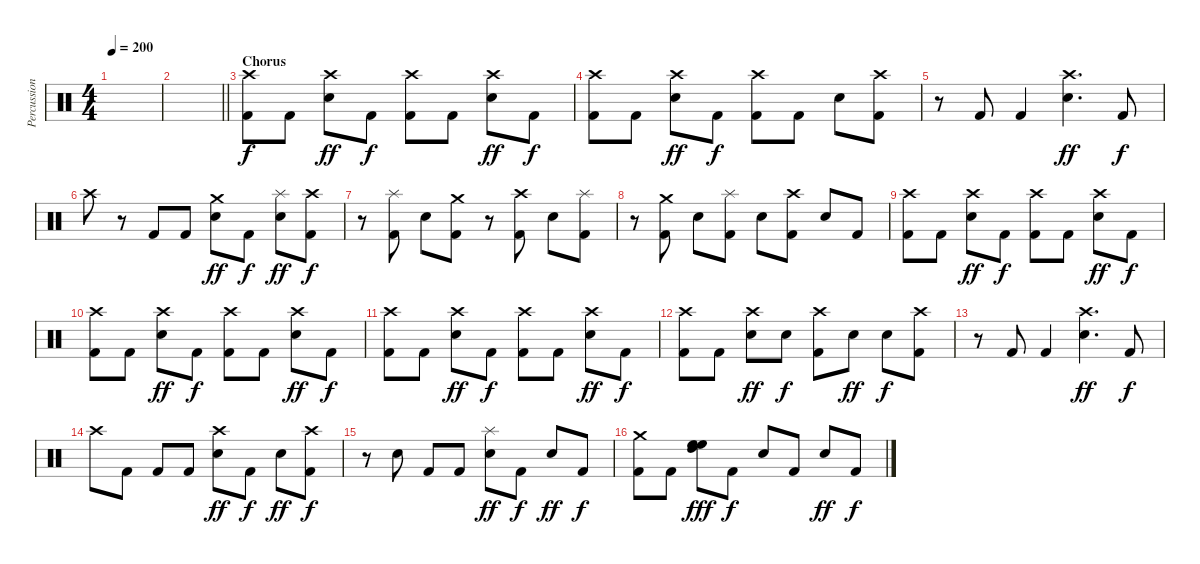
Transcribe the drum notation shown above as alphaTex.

\track ("Percussion" "Percussion") {instrument percussion}
\staff {score}
\articulation defaults
\ts (4 4)
\tempo 200
\clef neutral
\ks c
|
\barLineRight lightlight
|
\section ("" "Chorus")
("Crash high (hit)" "Kick (hit) 2").8{dy f} "Kick (hit) 2".8 ("Crash high (hit)" "Snare (hit) 2").8{dy ff} "Kick (hit) 2".8{dy f} ("Crash high (hit)" "Kick (hit) 2").8 "Kick (hit) 2".8 ("Crash high (hit)" "Snare (hit) 2").8{dy ff} "Kick (hit) 2".8{dy f} |
("Crash high (hit)" "Kick (hit) 2").8 "Kick (hit) 2".8 ("Crash high (hit)" "Snare (hit) 2").8{dy ff} "Kick (hit) 2".8{dy f} ("Crash high (hit)" "Kick (hit) 2").8 "Kick (hit) 2".8 "Snare (hit) 2".8 ("Crash high (hit)" "Kick (hit) 2").8 |
r.8 "Kick (hit) 2".8 "Kick (hit) 2".4 ("Crash high (hit)" "Snare (hit) 2").4{d dy ff} "Kick (hit) 2".8{dy f} |
"Crash high (hit)".8 r.8 "Kick (hit) 2".8 "Kick (hit) 2".8 ("Crash medium (hit)" "Snare (hit) 2").8{dy ff} "Kick (hit) 2".8{dy f} ("Splash (hit)" "Snare (hit) 2").8{dy ff} ("Crash high (hit)" "Kick (hit) 2").8{dy f} |
r.8 ("Splash (hit)" "Kick (hit) 2").8 "Snare (hit) 2".8 ("Crash medium (hit)" "Kick (hit) 2").8 r.8 ("Crash high (hit)" "Kick (hit) 2").8 "Snare (hit) 2".8 ("Splash (hit)" "Kick (hit) 2").8 |
r.8 ("Crash medium (hit)" "Kick (hit) 2").8 "Snare (hit) 2".8 ("Splash (hit)" "Kick (hit) 2").8 "Snare (hit) 2".8 ("Crash high (hit)" "Kick (hit) 2").8 "Snare (hit) 2".8 "Kick (hit) 2".8 |
("Crash high (hit)" "Kick (hit) 2").8 "Kick (hit) 2".8 ("Crash high (hit)" "Snare (hit) 2").8{dy ff} "Kick (hit) 2".8{dy f} ("Crash high (hit)" "Kick (hit) 2").8 "Kick (hit) 2".8 ("Crash high (hit)" "Snare (hit) 2").8{dy ff} "Kick (hit) 2".8{dy f} |
("Crash high (hit)" "Kick (hit) 2").8 "Kick (hit) 2".8 ("Crash high (hit)" "Snare (hit) 2").8{dy ff} "Kick (hit) 2".8{dy f} ("Crash high (hit)" "Kick (hit) 2").8 "Kick (hit) 2".8 ("Crash high (hit)" "Snare (hit) 2").8{dy ff} "Kick (hit) 2".8{dy f} |
("Crash high (hit)" "Kick (hit) 2").8 "Kick (hit) 2".8 ("Crash high (hit)" "Snare (hit) 2").8{dy ff} "Kick (hit) 2".8{dy f} ("Crash high (hit)" "Kick (hit) 2").8 "Kick (hit) 2".8 ("Crash high (hit)" "Snare (hit) 2").8{dy ff} "Kick (hit) 2".8{dy f} |
("Crash high (hit)" "Kick (hit) 2").8 "Kick (hit) 2".8 ("Crash high (hit)" "Snare (hit) 2").8{dy ff} "Snare (hit) 2".8{dy f} ("Crash high (hit)" "Kick (hit) 2").8 "Snare (hit) 2".8{dy ff} "Snare (hit) 2".8{dy f} ("Crash high (hit)" "Kick (hit) 2").8 |
r.8 "Kick (hit) 2".8 "Kick (hit) 2".4 ("Crash high (hit)" "Snare (hit) 2").4{d dy ff} "Kick (hit) 2".8{dy f} |
"Crash high (hit)".8 "Kick (hit) 2".8 "Kick (hit) 2".8 "Kick (hit) 2".8 ("Crash high (hit)" "Snare (hit) 2").8{dy ff} "Kick (hit) 2".8{dy f} "Snare (hit) 2".8{dy ff} ("Crash high (hit)" "Kick (hit) 2").8{dy f} |
r.8 "Snare (hit) 2".8 "Kick (hit) 2".8 "Kick (hit) 2".8 ("Splash (hit)" "Snare (hit) 2").8{dy ff} "Kick (hit) 2".8{dy f} "Snare (hit) 2".8{dy ff} "Kick (hit) 2".8{dy f} |
("Crash medium (hit)" "Kick (hit) 2").8 "Kick (hit) 2".8 ("High Floor Tom (hit)" "High Floor Tom (hit)" "High Tom (hit)").8{dy fff} "Kick (hit) 2".8{dy f} "Snare (hit) 2".8 "Kick (hit) 2".8 "Snare (hit) 2".8{dy ff} "Kick (hit) 2".8{dy f}
